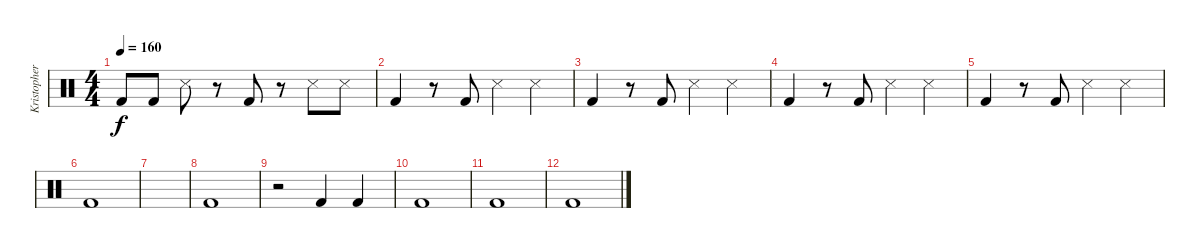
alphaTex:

\track ("Kristopher Schau (deep freezer,stove)" "Kristopher") {instrument percussion}
\staff {score}
\articulation defaults
\ts (4 4)
\tempo 160
\clef neutral
\ks c "Kick (hit) 2".8{dy f} "Kick (hit) 2".8 "Snare (side stick) 3".8
r.8 "Kick (hit) 2".8 r.8 "Snare (side stick) 3".8 "Snare (side stick) 3".8 |
"Kick (hit) 2".4 r.8 "Kick (hit) 2".8 "Snare (side stick) 3".4 "Snare (side stick) 3".4 |
"Kick (hit) 2".4 r.8 "Kick (hit) 2".8 "Snare (side stick) 3".4 "Snare (side stick) 3".4 |
"Kick (hit) 2".4 r.8 "Kick (hit) 2".8 "Snare (side stick) 3".4 "Snare (side stick) 3".4 |
"Kick (hit) 2".4 r.8 "Kick (hit) 2".8 "Snare (side stick) 3".4 "Snare (side stick) 3".4 |
"Kick (hit) 2".1 |
|
"Kick (hit) 2".1 |
r.2 "Kick (hit) 2".4 "Kick (hit) 2".4 |
"Kick (hit) 2".1 |
"Kick (hit) 2".1 |
"Kick (hit) 2".1
